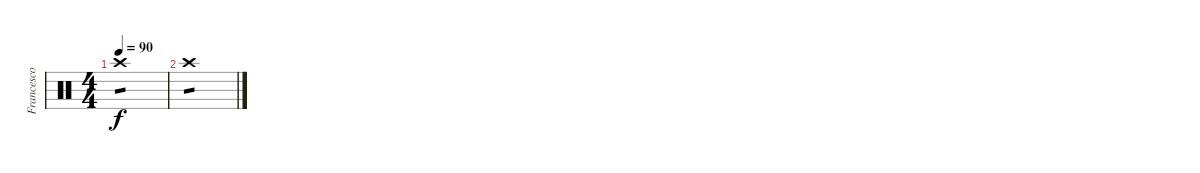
\track ("Francesco -Franz- Valente" "Francesco ") {instrument percussion}
\staff {score}
\articulation defaults
\ts (4 4)
\tempo 90
\clef neutral
\ks c "Crash high (hit)".1{tp 1 dy f}
|
"Crash high (hit)".1{tp 1}
